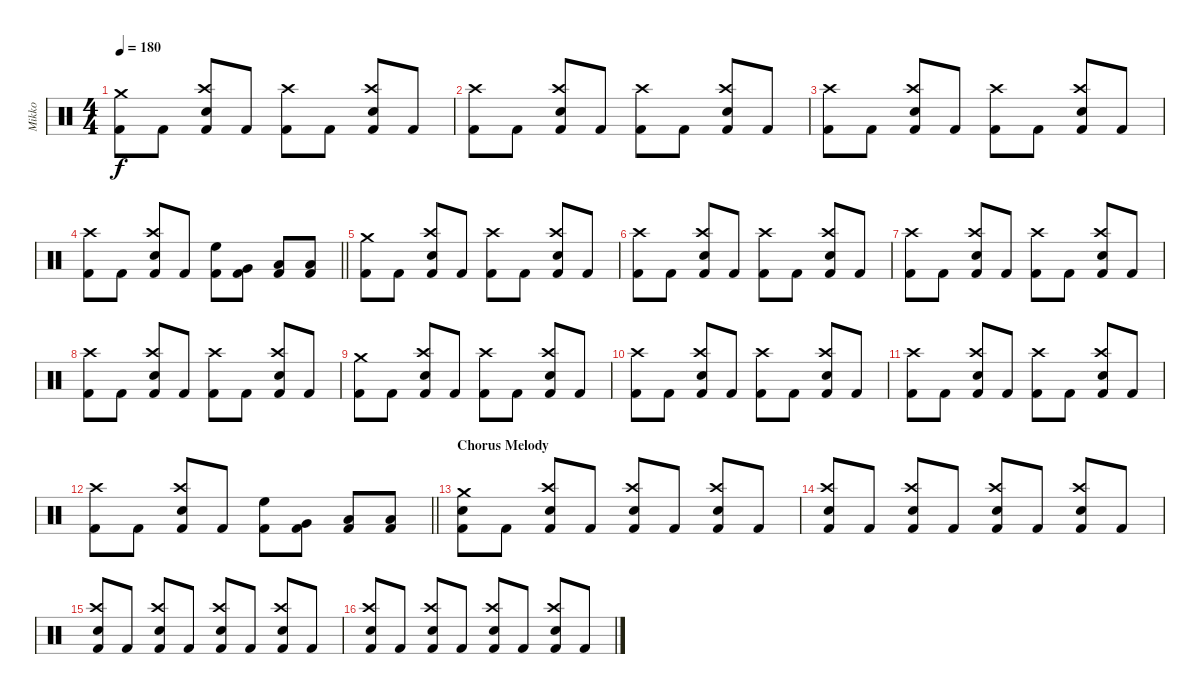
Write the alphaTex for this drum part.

\track ("Mikko" "Mikko") {instrument percussion}
\staff {score}
\articulation defaults
\ts (4 4)
\tempo 180
\clef neutral
\ks c
("Crash medium (hit)" "Kick (hit) 2").8{dy f} "Kick (hit) 2".8 ("Crash high (hit)" "Electric Snare (hit)" "Kick (hit) 2").8 "Kick (hit) 2".8 ("Crash high (hit)" "Kick (hit) 2").8 "Kick (hit) 2".8 ("Crash high (hit)" "Electric Snare (hit)" "Kick (hit) 2").8 "Kick (hit) 2".8 |
("Crash high (hit)" "Kick (hit) 2").8 "Kick (hit) 2".8 ("Crash high (hit)" "Electric Snare (hit)" "Kick (hit) 2").8 "Kick (hit) 2".8 ("Crash high (hit)" "Kick (hit) 2").8 "Kick (hit) 2".8 ("Crash high (hit)" "Electric Snare (hit)" "Kick (hit) 2").8 "Kick (hit) 2".8 |
("Crash high (hit)" "Kick (hit) 2").8 "Kick (hit) 2".8 ("Crash high (hit)" "Electric Snare (hit)" "Kick (hit) 2").8 "Kick (hit) 2".8 ("Crash high (hit)" "Kick (hit) 2").8 "Kick (hit) 2".8 ("Crash high (hit)" "Electric Snare (hit)" "Kick (hit) 2").8 "Kick (hit) 2".8 |
\barLineRight lightlight
("Crash high (hit)" "Kick (hit) 2").8 "Kick (hit) 2".8 ("Crash high (hit)" "Electric Snare (hit)" "Kick (hit) 2").8 "Kick (hit) 2".8 ("High Floor Tom (hit)" "Kick (hit) 2").8 ("Very Low Tom (hit)" "Kick (hit) 2").8 ("Low Floor Tom (hit)" "Kick (hit) 2").8 ("Low Tom (hit)" "Kick (hit) 2").8 |
("Crash medium (hit)" "Kick (hit) 2").8 "Kick (hit) 2".8 ("Crash high (hit)" "Electric Snare (hit)" "Kick (hit) 2").8 "Kick (hit) 2".8 ("Crash high (hit)" "Kick (hit) 2").8 "Kick (hit) 2".8 ("Crash high (hit)" "Electric Snare (hit)" "Kick (hit) 2").8 "Kick (hit) 2".8 |
("Crash high (hit)" "Kick (hit) 2").8 "Kick (hit) 2".8 ("Crash high (hit)" "Electric Snare (hit)" "Kick (hit) 2").8 "Kick (hit) 2".8 ("Crash high (hit)" "Kick (hit) 2").8 "Kick (hit) 2".8 ("Crash high (hit)" "Electric Snare (hit)" "Kick (hit) 2").8 "Kick (hit) 2".8 |
("Crash high (hit)" "Kick (hit) 2").8 "Kick (hit) 2".8 ("Crash high (hit)" "Electric Snare (hit)" "Kick (hit) 2").8 "Kick (hit) 2".8 ("Crash high (hit)" "Kick (hit) 2").8 "Kick (hit) 2".8 ("Crash high (hit)" "Electric Snare (hit)" "Kick (hit) 2").8 "Kick (hit) 2".8 |
("Crash high (hit)" "Kick (hit) 2").8 "Kick (hit) 2".8 ("Crash high (hit)" "Electric Snare (hit)" "Kick (hit) 2").8 "Kick (hit) 2".8 ("Crash high (hit)" "Kick (hit) 2").8 "Kick (hit) 2".8 ("Crash high (hit)" "Electric Snare (hit)" "Kick (hit) 2").8 "Kick (hit) 2".8 |
("Crash medium (hit)" "Kick (hit) 2").8 "Kick (hit) 2".8 ("Crash high (hit)" "Electric Snare (hit)" "Kick (hit) 2").8 "Kick (hit) 2".8 ("Crash high (hit)" "Kick (hit) 2").8 "Kick (hit) 2".8 ("Crash high (hit)" "Electric Snare (hit)" "Kick (hit) 2").8 "Kick (hit) 2".8 |
("Crash high (hit)" "Kick (hit) 2").8 "Kick (hit) 2".8 ("Crash high (hit)" "Electric Snare (hit)" "Kick (hit) 2").8 "Kick (hit) 2".8 ("Crash high (hit)" "Kick (hit) 2").8 "Kick (hit) 2".8 ("Crash high (hit)" "Electric Snare (hit)" "Kick (hit) 2").8 "Kick (hit) 2".8 |
("Crash high (hit)" "Kick (hit) 2").8 "Kick (hit) 2".8 ("Crash high (hit)" "Electric Snare (hit)" "Kick (hit) 2").8 "Kick (hit) 2".8 ("Crash high (hit)" "Kick (hit) 2").8 "Kick (hit) 2".8 ("Crash high (hit)" "Electric Snare (hit)" "Kick (hit) 2").8 "Kick (hit) 2".8 |
\barLineRight lightlight
("Crash high (hit)" "Kick (hit) 2").8 "Kick (hit) 2".8 ("Crash high (hit)" "Electric Snare (hit)" "Kick (hit) 2").8 "Kick (hit) 2".8 ("High Floor Tom (hit)" "Kick (hit) 2").8 ("Very Low Tom (hit)" "Kick (hit) 2").8 ("Low Floor Tom (hit)" "Kick (hit) 2").8 ("Low Tom (hit)" "Kick (hit) 2").8 |
\section ("" "Chorus Melody")
("Crash medium (hit)" "Electric Snare (hit)" "Kick (hit) 2").8 "Kick (hit) 2".8 ("Crash high (hit)" "Electric Snare (hit)" "Kick (hit) 2").8 "Kick (hit) 2".8 ("Crash high (hit)" "Electric Snare (hit)" "Kick (hit) 2").8 "Kick (hit) 2".8 ("Crash high (hit)" "Electric Snare (hit)" "Kick (hit) 2").8 "Kick (hit) 2".8 |
("Crash high (hit)" "Electric Snare (hit)" "Kick (hit) 2").8 "Kick (hit) 2".8 ("Crash high (hit)" "Electric Snare (hit)" "Kick (hit) 2").8 "Kick (hit) 2".8 ("Crash high (hit)" "Electric Snare (hit)" "Kick (hit) 2").8 "Kick (hit) 2".8 ("Crash high (hit)" "Electric Snare (hit)" "Kick (hit) 2").8 "Kick (hit) 2".8 |
("Crash high (hit)" "Electric Snare (hit)" "Kick (hit) 2").8 "Kick (hit) 2".8 ("Crash high (hit)" "Electric Snare (hit)" "Kick (hit) 2").8 "Kick (hit) 2".8 ("Crash high (hit)" "Electric Snare (hit)" "Kick (hit) 2").8 "Kick (hit) 2".8 ("Crash high (hit)" "Electric Snare (hit)" "Kick (hit) 2").8 "Kick (hit) 2".8 |
("Crash high (hit)" "Electric Snare (hit)" "Kick (hit) 2").8 "Kick (hit) 2".8 ("Crash high (hit)" "Electric Snare (hit)" "Kick (hit) 2").8 "Kick (hit) 2".8 ("Crash high (hit)" "Electric Snare (hit)" "Kick (hit) 2").8 "Kick (hit) 2".8 ("Crash high (hit)" "Electric Snare (hit)" "Kick (hit) 2").8 "Kick (hit) 2".8
